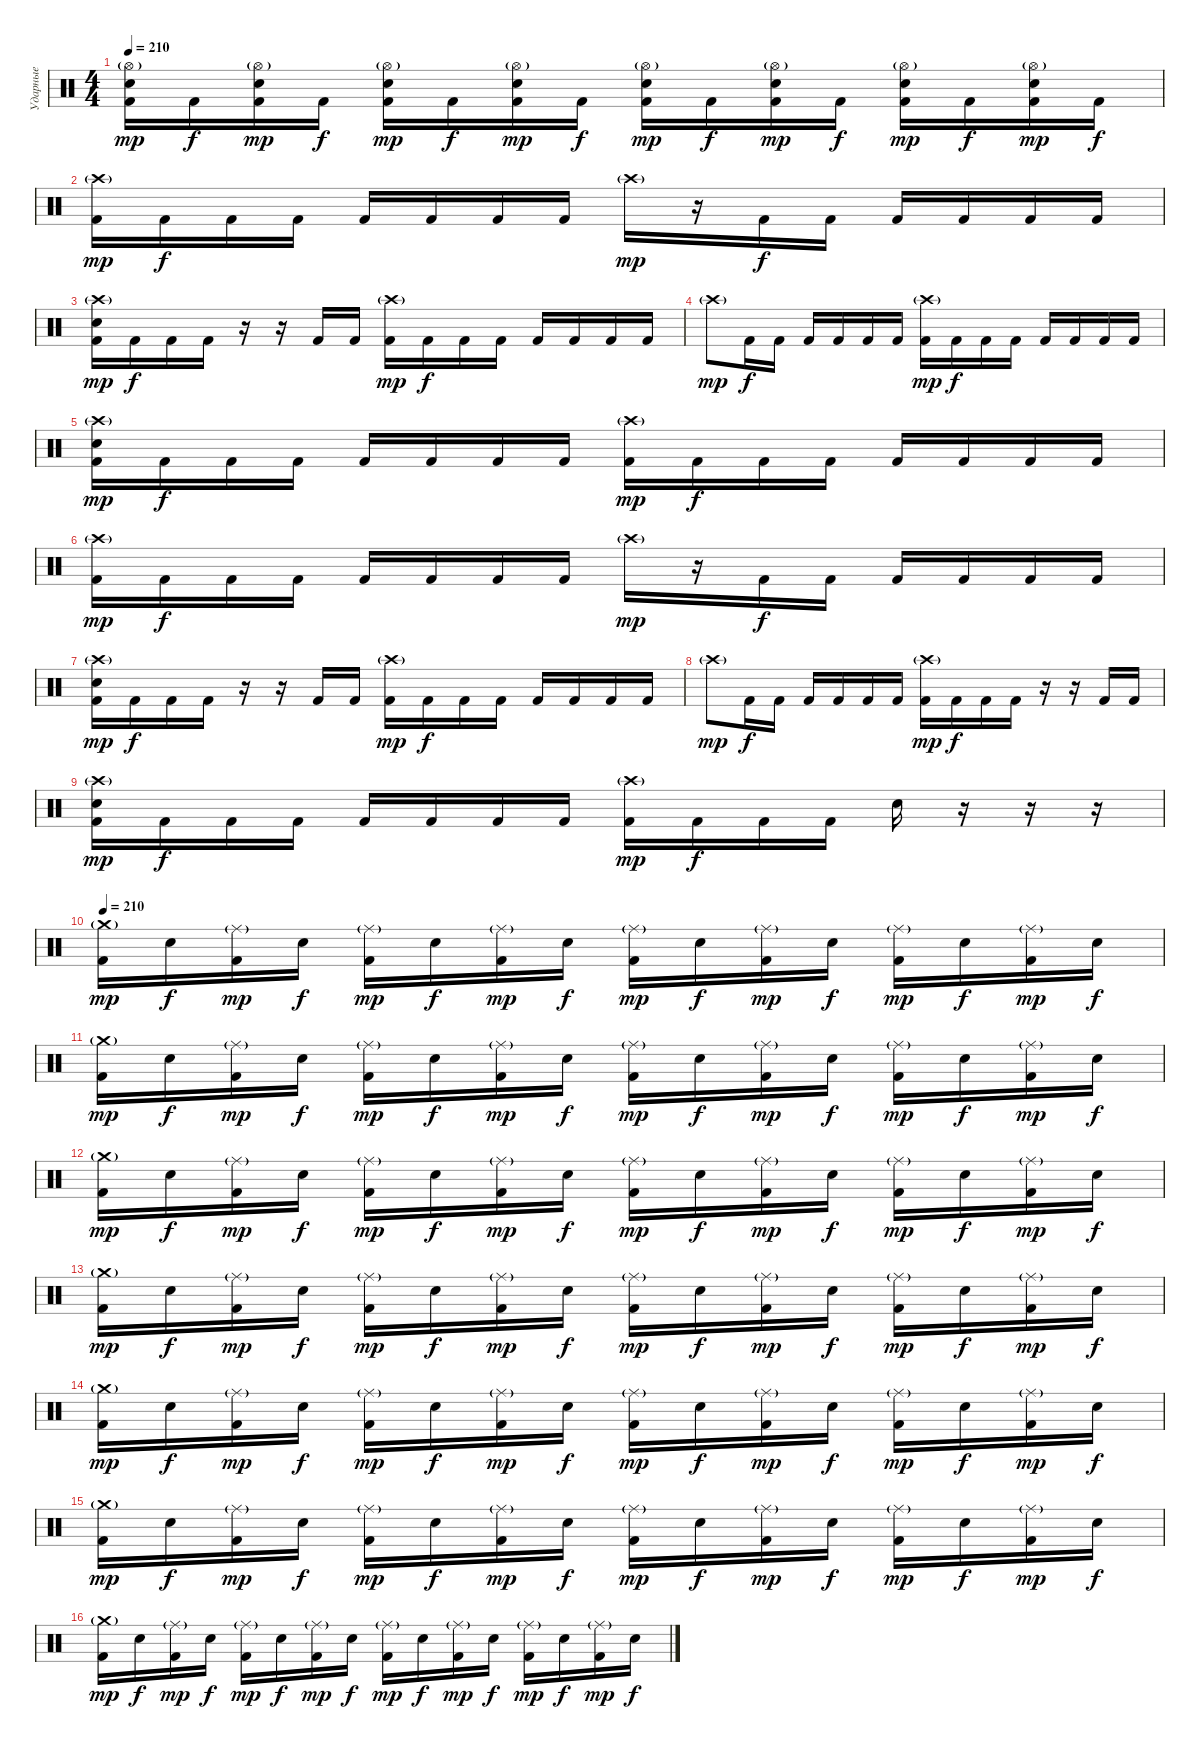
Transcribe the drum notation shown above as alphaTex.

\track ("Ударные" "Ударные") {instrument percussion}
\staff {score}
\articulation defaults
\ts (4 4)
\tempo 210
\clef neutral
\ks c
("Hi-Hat (open)"{g} "Electric Snare (hit)" "Kick (hit) 2").16{dy mp} "Kick (hit) 2".16{dy f} ("Hi-Hat (open)"{g} "Electric Snare (hit)" "Kick (hit) 2").16{dy mp} "Kick (hit) 2".16{dy f} ("Hi-Hat (open)"{g} "Electric Snare (hit)" "Kick (hit) 2").16{dy mp} "Kick (hit) 2".16{dy f} ("Hi-Hat (open)"{g} "Electric Snare (hit)" "Kick (hit) 2").16{dy mp} "Kick (hit) 2".16{dy f} ("Hi-Hat (open)"{g} "Electric Snare (hit)" "Kick (hit) 2").16{dy mp} "Kick (hit) 2".16{dy f} ("Hi-Hat (open)"{g} "Electric Snare (hit)" "Kick (hit) 2").16{dy mp} "Kick (hit) 2".16{dy f} ("Hi-Hat (open)"{g} "Electric Snare (hit)" "Kick (hit) 2").16{dy mp} "Kick (hit) 2".16{dy f} ("Hi-Hat (open)"{g} "Electric Snare (hit)" "Kick (hit) 2").16{dy mp} "Kick (hit) 2".16{dy f} |
("Crash high (hit)"{g} "Kick (hit) 2").16{dy mp} "Kick (hit) 2".16{dy f} "Kick (hit) 2".16 "Kick (hit) 2".16 "Kick (hit) 2".16 "Kick (hit) 2".16 "Kick (hit) 2".16 "Kick (hit) 2".16 "Crash high (hit)"{g}.16{dy mp} r.16 "Kick (hit) 2".16{dy f} "Kick (hit) 2".16 "Kick (hit) 2".16 "Kick (hit) 2".16 "Kick (hit) 2".16 "Kick (hit) 2".16 |
("Crash high (hit)"{g} "Electric Snare (hit)" "Kick (hit) 2").16{dy mp} "Kick (hit) 2".16{dy f} "Kick (hit) 2".16 "Kick (hit) 2".16 r.16 r.16 "Kick (hit) 2".16 "Kick (hit) 2".16 ("Crash high (hit)"{g} "Kick (hit) 2").16{dy mp} "Kick (hit) 2".16{dy f} "Kick (hit) 2".16 "Kick (hit) 2".16 "Kick (hit) 2".16 "Kick (hit) 2".16 "Kick (hit) 2".16 "Kick (hit) 2".16 |
"Crash high (hit)"{g}.8{dy mp} "Kick (hit) 2".16{dy f} "Kick (hit) 2".16 "Kick (hit) 2".16 "Kick (hit) 2".16 "Kick (hit) 2".16 "Kick (hit) 2".16 ("Crash high (hit)"{g} "Kick (hit) 2").16{dy mp} "Kick (hit) 2".16{dy f} "Kick (hit) 2".16 "Kick (hit) 2".16 "Kick (hit) 2".16 "Kick (hit) 2".16 "Kick (hit) 2".16 "Kick (hit) 2".16 |
("Crash high (hit)"{g} "Electric Snare (hit)" "Kick (hit) 2").16{dy mp} "Kick (hit) 2".16{dy f} "Kick (hit) 2".16 "Kick (hit) 2".16 "Kick (hit) 2".16 "Kick (hit) 2".16 "Kick (hit) 2".16 "Kick (hit) 2".16 ("Crash high (hit)"{g} "Kick (hit) 2").16{dy mp} "Kick (hit) 2".16{dy f} "Kick (hit) 2".16 "Kick (hit) 2".16 "Kick (hit) 2".16 "Kick (hit) 2".16 "Kick (hit) 2".16 "Kick (hit) 2".16 |
("Crash high (hit)"{g} "Kick (hit) 2").16{dy mp} "Kick (hit) 2".16{dy f} "Kick (hit) 2".16 "Kick (hit) 2".16 "Kick (hit) 2".16 "Kick (hit) 2".16 "Kick (hit) 2".16 "Kick (hit) 2".16 "Crash high (hit)"{g}.16{dy mp} r.16 "Kick (hit) 2".16{dy f} "Kick (hit) 2".16 "Kick (hit) 2".16 "Kick (hit) 2".16 "Kick (hit) 2".16 "Kick (hit) 2".16 |
("Crash high (hit)"{g} "Electric Snare (hit)" "Kick (hit) 2").16{dy mp} "Kick (hit) 2".16{dy f} "Kick (hit) 2".16 "Kick (hit) 2".16 r.16 r.16 "Kick (hit) 2".16 "Kick (hit) 2".16 ("Crash high (hit)"{g} "Kick (hit) 2").16{dy mp} "Kick (hit) 2".16{dy f} "Kick (hit) 2".16 "Kick (hit) 2".16 "Kick (hit) 2".16 "Kick (hit) 2".16 "Kick (hit) 2".16 "Kick (hit) 2".16 |
"Crash high (hit)"{g}.8{dy mp} "Kick (hit) 2".16{dy f} "Kick (hit) 2".16 "Kick (hit) 2".16 "Kick (hit) 2".16 "Kick (hit) 2".16 "Kick (hit) 2".16 ("Crash high (hit)"{g} "Kick (hit) 2").16{dy mp} "Kick (hit) 2".16{dy f} "Kick (hit) 2".16 "Kick (hit) 2".16 r.16 r.16 "Kick (hit) 2".16 "Kick (hit) 2".16 |
("Crash high (hit)"{g} "Electric Snare (hit)" "Kick (hit) 2").16{dy mp} "Kick (hit) 2".16{dy f} "Kick (hit) 2".16 "Kick (hit) 2".16 "Kick (hit) 2".16 "Kick (hit) 2".16 "Kick (hit) 2".16 "Kick (hit) 2".16 ("Crash high (hit)"{g} "Kick (hit) 2").16{dy mp} "Kick (hit) 2".16{dy f} "Kick (hit) 2".16 "Kick (hit) 2".16 "Electric Snare (hit)".16 r.16 r.16 r.16 |
\tempo 210
("Crash medium (hit)"{g} "Kick (hit) 2").16{dy mp} "Electric Snare (hit)".16{dy f} ("Ride (middle)"{g} "Kick (hit) 2").16{dy mp} "Electric Snare (hit)".16{dy f} ("Ride (middle)"{g} "Kick (hit) 2").16{dy mp} "Electric Snare (hit)".16{dy f} ("Ride (middle)"{g} "Kick (hit) 2").16{dy mp} "Electric Snare (hit)".16{dy f} ("Ride (middle)"{g} "Kick (hit) 2").16{dy mp} "Electric Snare (hit)".16{dy f} ("Ride (middle)"{g} "Kick (hit) 2").16{dy mp} "Electric Snare (hit)".16{dy f} ("Ride (middle)"{g} "Kick (hit) 2").16{dy mp} "Electric Snare (hit)".16{dy f} ("Ride (middle)"{g} "Kick (hit) 2").16{dy mp} "Electric Snare (hit)".16{dy f} |
("Crash medium (hit)"{g} "Kick (hit) 2").16{dy mp} "Electric Snare (hit)".16{dy f} ("Ride (middle)"{g} "Kick (hit) 2").16{dy mp} "Electric Snare (hit)".16{dy f} ("Ride (middle)"{g} "Kick (hit) 2").16{dy mp} "Electric Snare (hit)".16{dy f} ("Ride (middle)"{g} "Kick (hit) 2").16{dy mp} "Electric Snare (hit)".16{dy f} ("Ride (middle)"{g} "Kick (hit) 2").16{dy mp} "Electric Snare (hit)".16{dy f} ("Ride (middle)"{g} "Kick (hit) 2").16{dy mp} "Electric Snare (hit)".16{dy f} ("Ride (middle)"{g} "Kick (hit) 2").16{dy mp} "Electric Snare (hit)".16{dy f} ("Ride (middle)"{g} "Kick (hit) 2").16{dy mp} "Electric Snare (hit)".16{dy f} |
("Crash medium (hit)"{g} "Kick (hit) 2").16{dy mp} "Electric Snare (hit)".16{dy f} ("Ride (middle)"{g} "Kick (hit) 2").16{dy mp} "Electric Snare (hit)".16{dy f} ("Ride (middle)"{g} "Kick (hit) 2").16{dy mp} "Electric Snare (hit)".16{dy f} ("Ride (middle)"{g} "Kick (hit) 2").16{dy mp} "Electric Snare (hit)".16{dy f} ("Ride (middle)"{g} "Kick (hit) 2").16{dy mp} "Electric Snare (hit)".16{dy f} ("Ride (middle)"{g} "Kick (hit) 2").16{dy mp} "Electric Snare (hit)".16{dy f} ("Ride (middle)"{g} "Kick (hit) 2").16{dy mp} "Electric Snare (hit)".16{dy f} ("Ride (middle)"{g} "Kick (hit) 2").16{dy mp} "Electric Snare (hit)".16{dy f} |
("Crash medium (hit)"{g} "Kick (hit) 2").16{dy mp} "Electric Snare (hit)".16{dy f} ("Ride (middle)"{g} "Kick (hit) 2").16{dy mp} "Electric Snare (hit)".16{dy f} ("Ride (middle)"{g} "Kick (hit) 2").16{dy mp} "Electric Snare (hit)".16{dy f} ("Ride (middle)"{g} "Kick (hit) 2").16{dy mp} "Electric Snare (hit)".16{dy f} ("Ride (middle)"{g} "Kick (hit) 2").16{dy mp} "Electric Snare (hit)".16{dy f} ("Ride (middle)"{g} "Kick (hit) 2").16{dy mp} "Electric Snare (hit)".16{dy f} ("Ride (middle)"{g} "Kick (hit) 2").16{dy mp} "Electric Snare (hit)".16{dy f} ("Ride (middle)"{g} "Kick (hit) 2").16{dy mp} "Electric Snare (hit)".16{dy f} |
("Crash medium (hit)"{g} "Kick (hit) 2").16{dy mp} "Electric Snare (hit)".16{dy f} ("Ride (middle)"{g} "Kick (hit) 2").16{dy mp} "Electric Snare (hit)".16{dy f} ("Ride (middle)"{g} "Kick (hit) 2").16{dy mp} "Electric Snare (hit)".16{dy f} ("Ride (middle)"{g} "Kick (hit) 2").16{dy mp} "Electric Snare (hit)".16{dy f} ("Ride (middle)"{g} "Kick (hit) 2").16{dy mp} "Electric Snare (hit)".16{dy f} ("Ride (middle)"{g} "Kick (hit) 2").16{dy mp} "Electric Snare (hit)".16{dy f} ("Ride (middle)"{g} "Kick (hit) 2").16{dy mp} "Electric Snare (hit)".16{dy f} ("Ride (middle)"{g} "Kick (hit) 2").16{dy mp} "Electric Snare (hit)".16{dy f} |
("Crash medium (hit)"{g} "Kick (hit) 2").16{dy mp} "Electric Snare (hit)".16{dy f} ("Ride (middle)"{g} "Kick (hit) 2").16{dy mp} "Electric Snare (hit)".16{dy f} ("Ride (middle)"{g} "Kick (hit) 2").16{dy mp} "Electric Snare (hit)".16{dy f} ("Ride (middle)"{g} "Kick (hit) 2").16{dy mp} "Electric Snare (hit)".16{dy f} ("Ride (middle)"{g} "Kick (hit) 2").16{dy mp} "Electric Snare (hit)".16{dy f} ("Ride (middle)"{g} "Kick (hit) 2").16{dy mp} "Electric Snare (hit)".16{dy f} ("Ride (middle)"{g} "Kick (hit) 2").16{dy mp} "Electric Snare (hit)".16{dy f} ("Ride (middle)"{g} "Kick (hit) 2").16{dy mp} "Electric Snare (hit)".16{dy f} |
("Crash medium (hit)"{g} "Kick (hit) 2").16{dy mp} "Electric Snare (hit)".16{dy f} ("Ride (middle)"{g} "Kick (hit) 2").16{dy mp} "Electric Snare (hit)".16{dy f} ("Ride (middle)"{g} "Kick (hit) 2").16{dy mp} "Electric Snare (hit)".16{dy f} ("Ride (middle)"{g} "Kick (hit) 2").16{dy mp} "Electric Snare (hit)".16{dy f} ("Ride (middle)"{g} "Kick (hit) 2").16{dy mp} "Electric Snare (hit)".16{dy f} ("Ride (middle)"{g} "Kick (hit) 2").16{dy mp} "Electric Snare (hit)".16{dy f} ("Ride (middle)"{g} "Kick (hit) 2").16{dy mp} "Electric Snare (hit)".16{dy f} ("Ride (middle)"{g} "Kick (hit) 2").16{dy mp} "Electric Snare (hit)".16{dy f}
